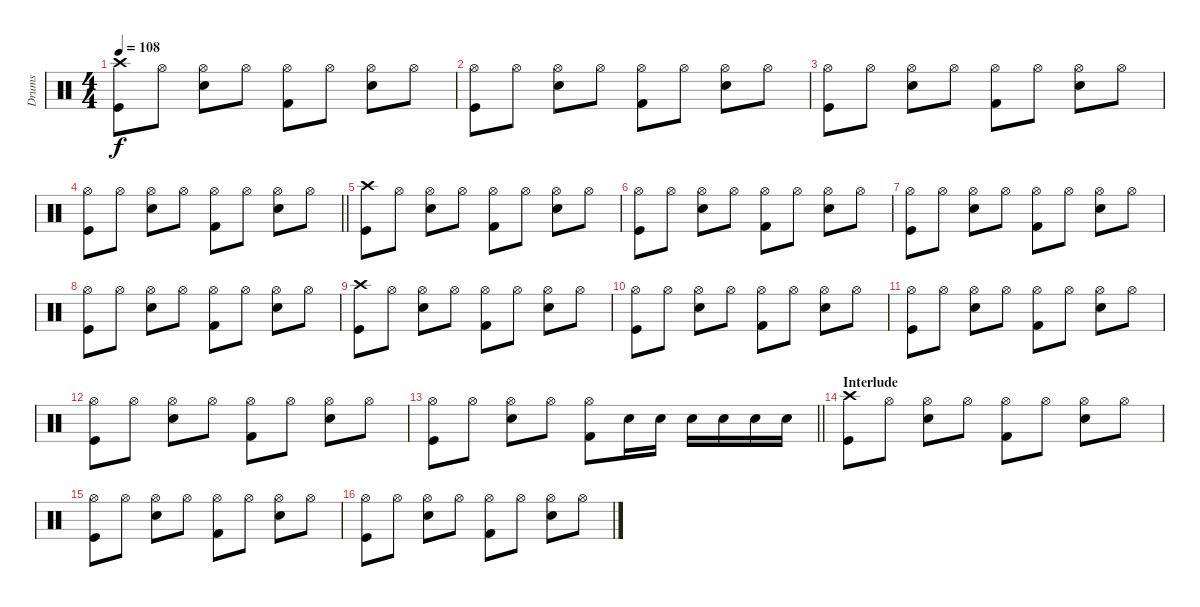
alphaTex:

\track ("Drums" "Drums") {instrument percussion}
\staff {score}
\articulation defaults
\ts (4 4)
\tempo 108
\clef neutral
\ks c
("Crash high (hit)" "Kick (hit)").8{dy f} "Hi-Hat (open)".8 ("Hi-Hat (open)" "Snare (hit) 2").8 "Hi-Hat (open)".8 ("Hi-Hat (open)" "Kick (hit) 2").8 "Hi-Hat (open)".8 ("Hi-Hat (open)" "Snare (hit) 2").8 "Hi-Hat (open)".8 |
("Hi-Hat (open)" "Kick (hit)").8 "Hi-Hat (open)".8 ("Hi-Hat (open)" "Snare (hit) 2").8 "Hi-Hat (open)".8 ("Hi-Hat (open)" "Kick (hit) 2").8 "Hi-Hat (open)".8 ("Hi-Hat (open)" "Snare (hit) 2").8 "Hi-Hat (open)".8 |
("Hi-Hat (open)" "Kick (hit)").8 "Hi-Hat (open)".8 ("Hi-Hat (open)" "Snare (hit) 2").8 "Hi-Hat (open)".8 ("Hi-Hat (open)" "Kick (hit) 2").8 "Hi-Hat (open)".8 ("Hi-Hat (open)" "Snare (hit) 2").8 "Hi-Hat (open)".8 |
\barLineRight lightlight
("Hi-Hat (open)" "Kick (hit)").8 "Hi-Hat (open)".8 ("Hi-Hat (open)" "Snare (hit) 2").8 "Hi-Hat (open)".8 ("Hi-Hat (open)" "Kick (hit) 2").8 "Hi-Hat (open)".8 ("Hi-Hat (open)" "Snare (hit) 2").8 "Hi-Hat (open)".8 |
("Crash high (hit)" "Kick (hit)").8 "Hi-Hat (open)".8 ("Hi-Hat (open)" "Snare (hit) 2").8 "Hi-Hat (open)".8 ("Hi-Hat (open)" "Kick (hit) 2").8 "Hi-Hat (open)".8 ("Hi-Hat (open)" "Snare (hit) 2").8 "Hi-Hat (open)".8 |
("Hi-Hat (open)" "Kick (hit)").8 "Hi-Hat (open)".8 ("Hi-Hat (open)" "Snare (hit) 2").8 "Hi-Hat (open)".8 ("Hi-Hat (open)" "Kick (hit) 2").8 "Hi-Hat (open)".8 ("Hi-Hat (open)" "Snare (hit) 2").8 "Hi-Hat (open)".8 |
("Hi-Hat (open)" "Kick (hit)").8 "Hi-Hat (open)".8 ("Hi-Hat (open)" "Snare (hit) 2").8 "Hi-Hat (open)".8 ("Hi-Hat (open)" "Kick (hit) 2").8 "Hi-Hat (open)".8 ("Hi-Hat (open)" "Snare (hit) 2").8 "Hi-Hat (open)".8 |
("Hi-Hat (open)" "Kick (hit)").8 "Hi-Hat (open)".8 ("Hi-Hat (open)" "Snare (hit) 2").8 "Hi-Hat (open)".8 ("Hi-Hat (open)" "Kick (hit) 2").8 "Hi-Hat (open)".8 ("Hi-Hat (open)" "Snare (hit) 2").8 "Hi-Hat (open)".8 |
("Crash high (hit)" "Kick (hit)").8 "Hi-Hat (open)".8 ("Hi-Hat (open)" "Snare (hit) 2").8 "Hi-Hat (open)".8 ("Hi-Hat (open)" "Kick (hit) 2").8 "Hi-Hat (open)".8 ("Hi-Hat (open)" "Snare (hit) 2").8 "Hi-Hat (open)".8 |
("Hi-Hat (open)" "Kick (hit)").8 "Hi-Hat (open)".8 ("Hi-Hat (open)" "Snare (hit) 2").8 "Hi-Hat (open)".8 ("Hi-Hat (open)" "Kick (hit) 2").8 "Hi-Hat (open)".8 ("Hi-Hat (open)" "Snare (hit) 2").8 "Hi-Hat (open)".8 |
("Hi-Hat (open)" "Kick (hit)").8 "Hi-Hat (open)".8 ("Hi-Hat (open)" "Snare (hit) 2").8 "Hi-Hat (open)".8 ("Hi-Hat (open)" "Kick (hit) 2").8 "Hi-Hat (open)".8 ("Hi-Hat (open)" "Snare (hit) 2").8 "Hi-Hat (open)".8 |
("Hi-Hat (open)" "Kick (hit)").8 "Hi-Hat (open)".8 ("Hi-Hat (open)" "Snare (hit) 2").8 "Hi-Hat (open)".8 ("Hi-Hat (open)" "Kick (hit) 2").8 "Hi-Hat (open)".8 ("Hi-Hat (open)" "Snare (hit) 2").8 "Hi-Hat (open)".8 |
\barLineRight lightlight
("Hi-Hat (open)" "Kick (hit)").8 "Hi-Hat (open)".8 ("Hi-Hat (open)" "Snare (hit) 2").8 "Hi-Hat (open)".8 ("Hi-Hat (open)" "Kick (hit) 2").8 "Snare (hit) 2".16 "Snare (hit) 2".16 "Snare (hit) 2".16 "Snare (hit) 2".16 "Snare (hit) 2".16 "Snare (hit) 2".16 |
\section ("" "Interlude")
("Crash high (hit)" "Kick (hit)").8 "Hi-Hat (open)".8 ("Hi-Hat (open)" "Snare (hit) 2").8 "Hi-Hat (open)".8 ("Hi-Hat (open)" "Kick (hit) 2").8 "Hi-Hat (open)".8 ("Hi-Hat (open)" "Snare (hit) 2").8 "Hi-Hat (open)".8 |
("Hi-Hat (open)" "Kick (hit)").8 "Hi-Hat (open)".8 ("Hi-Hat (open)" "Snare (hit) 2").8 "Hi-Hat (open)".8 ("Hi-Hat (open)" "Kick (hit) 2").8 "Hi-Hat (open)".8 ("Hi-Hat (open)" "Snare (hit) 2").8 "Hi-Hat (open)".8 |
("Hi-Hat (open)" "Kick (hit)").8 "Hi-Hat (open)".8 ("Hi-Hat (open)" "Snare (hit) 2").8 "Hi-Hat (open)".8 ("Hi-Hat (open)" "Kick (hit) 2").8 "Hi-Hat (open)".8 ("Hi-Hat (open)" "Snare (hit) 2").8 "Hi-Hat (open)".8
